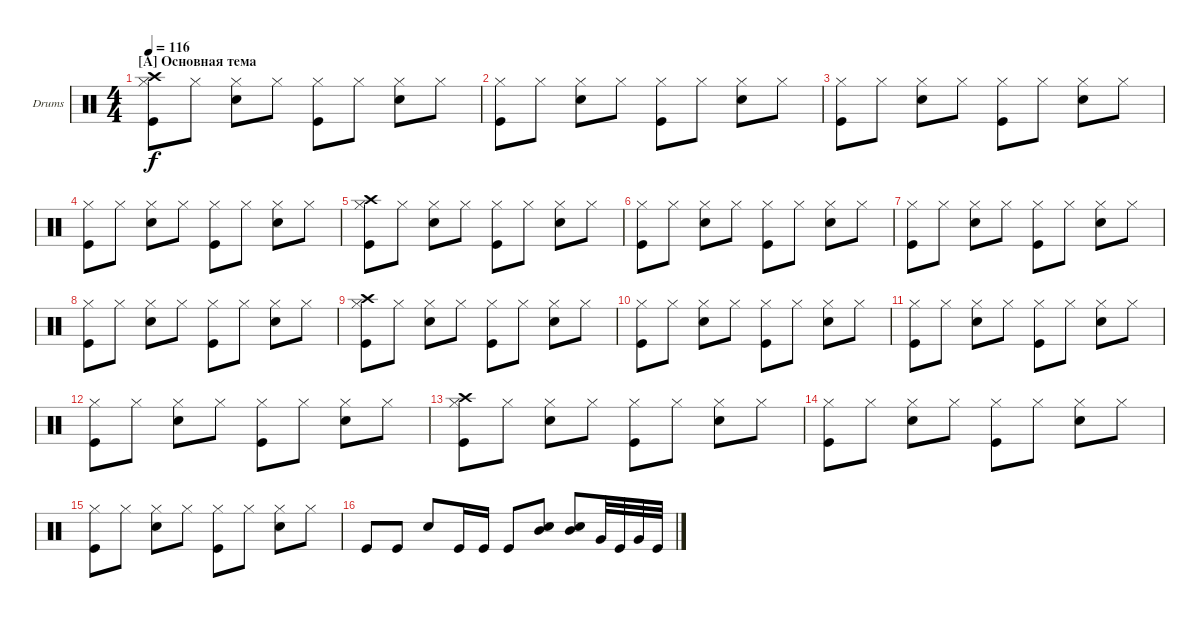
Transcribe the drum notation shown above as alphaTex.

\defaultSystemsLayout 4
\bracketExtendMode groupsimilarinstruments
\firstSystemTrackNameOrientation horizontal
\otherSystemsTrackNameOrientation horizontal
\track ("Drumkit" "Drums") {instrument percussion}
\staff {score}
\articulation defaults
\ts (4 4)
\section ("A" "Основная тема")
\tempo 116
\clef neutral
\ks c
("Hi-Hat (closed)" "Crash high (hit)" "Kick (hit)").8{dy f} "Hi-Hat (closed)".8 ("Hi-Hat (closed)" "Snare (hit) 2").8 "Hi-Hat (closed)".8 ("Hi-Hat (closed)" "Kick (hit)").8 "Hi-Hat (closed)".8 ("Hi-Hat (closed)" "Snare (hit) 2").8 "Hi-Hat (closed)".8 |
("Hi-Hat (closed)" "Kick (hit)").8 "Hi-Hat (closed)".8 ("Hi-Hat (closed)" "Snare (hit) 2").8 "Hi-Hat (closed)".8 ("Hi-Hat (closed)" "Kick (hit)").8 "Hi-Hat (closed)".8 ("Hi-Hat (closed)" "Snare (hit) 2").8 "Hi-Hat (closed)".8 |
("Hi-Hat (closed)" "Kick (hit)").8 "Hi-Hat (closed)".8 ("Hi-Hat (closed)" "Snare (hit) 2").8 "Hi-Hat (closed)".8 ("Hi-Hat (closed)" "Kick (hit)").8 "Hi-Hat (closed)".8 ("Hi-Hat (closed)" "Snare (hit) 2").8 "Hi-Hat (closed)".8 |
("Hi-Hat (closed)" "Kick (hit)").8 "Hi-Hat (closed)".8 ("Hi-Hat (closed)" "Snare (hit) 2").8 "Hi-Hat (closed)".8 ("Hi-Hat (closed)" "Kick (hit)").8 "Hi-Hat (closed)".8 ("Hi-Hat (closed)" "Snare (hit) 2").8 "Hi-Hat (closed)".8 |
("Hi-Hat (closed)" "Crash high (hit)" "Kick (hit)").8 "Hi-Hat (closed)".8 ("Hi-Hat (closed)" "Snare (hit) 2").8 "Hi-Hat (closed)".8 ("Hi-Hat (closed)" "Kick (hit)").8 "Hi-Hat (closed)".8 ("Hi-Hat (closed)" "Snare (hit) 2").8 "Hi-Hat (closed)".8 |
("Hi-Hat (closed)" "Kick (hit)").8 "Hi-Hat (closed)".8 ("Hi-Hat (closed)" "Snare (hit) 2").8 "Hi-Hat (closed)".8 ("Hi-Hat (closed)" "Kick (hit)").8 "Hi-Hat (closed)".8 ("Hi-Hat (closed)" "Snare (hit) 2").8 "Hi-Hat (closed)".8 |
("Hi-Hat (closed)" "Kick (hit)").8 "Hi-Hat (closed)".8 ("Hi-Hat (closed)" "Snare (hit) 2").8 "Hi-Hat (closed)".8 ("Hi-Hat (closed)" "Kick (hit)").8 "Hi-Hat (closed)".8 ("Hi-Hat (closed)" "Snare (hit) 2").8 "Hi-Hat (closed)".8 |
("Hi-Hat (closed)" "Kick (hit)").8 "Hi-Hat (closed)".8 ("Hi-Hat (closed)" "Snare (hit) 2").8 "Hi-Hat (closed)".8 ("Hi-Hat (closed)" "Kick (hit)").8 "Hi-Hat (closed)".8 ("Hi-Hat (closed)" "Snare (hit) 2").8 "Hi-Hat (closed)".8 |
("Hi-Hat (closed)" "Crash high (hit)" "Kick (hit)").8 "Hi-Hat (closed)".8 ("Hi-Hat (closed)" "Snare (hit) 2").8 "Hi-Hat (closed)".8 ("Hi-Hat (closed)" "Kick (hit)").8 "Hi-Hat (closed)".8 ("Hi-Hat (closed)" "Snare (hit) 2").8 "Hi-Hat (closed)".8 |
("Hi-Hat (closed)" "Kick (hit)").8 "Hi-Hat (closed)".8 ("Hi-Hat (closed)" "Snare (hit) 2").8 "Hi-Hat (closed)".8 ("Hi-Hat (closed)" "Kick (hit)").8 "Hi-Hat (closed)".8 ("Hi-Hat (closed)" "Snare (hit) 2").8 "Hi-Hat (closed)".8 |
("Hi-Hat (closed)" "Kick (hit)").8 "Hi-Hat (closed)".8 ("Hi-Hat (closed)" "Snare (hit) 2").8 "Hi-Hat (closed)".8 ("Hi-Hat (closed)" "Kick (hit)").8 "Hi-Hat (closed)".8 ("Hi-Hat (closed)" "Snare (hit) 2").8 "Hi-Hat (closed)".8 |
("Hi-Hat (closed)" "Kick (hit)").8 "Hi-Hat (closed)".8 ("Hi-Hat (closed)" "Snare (hit) 2").8 "Hi-Hat (closed)".8 ("Hi-Hat (closed)" "Kick (hit)").8 "Hi-Hat (closed)".8 ("Hi-Hat (closed)" "Snare (hit) 2").8 "Hi-Hat (closed)".8 |
("Hi-Hat (closed)" "Crash high (hit)" "Kick (hit)").8 "Hi-Hat (closed)".8 ("Hi-Hat (closed)" "Snare (hit) 2").8 "Hi-Hat (closed)".8 ("Hi-Hat (closed)" "Kick (hit)").8 "Hi-Hat (closed)".8 ("Hi-Hat (closed)" "Snare (hit) 2").8 "Hi-Hat (closed)".8 |
("Hi-Hat (closed)" "Kick (hit)").8 "Hi-Hat (closed)".8 ("Hi-Hat (closed)" "Snare (hit) 2").8 "Hi-Hat (closed)".8 ("Hi-Hat (closed)" "Kick (hit)").8 "Hi-Hat (closed)".8 ("Hi-Hat (closed)" "Snare (hit) 2").8 "Hi-Hat (closed)".8 |
("Hi-Hat (closed)" "Kick (hit)").8 "Hi-Hat (closed)".8 ("Hi-Hat (closed)" "Snare (hit) 2").8 "Hi-Hat (closed)".8 ("Hi-Hat (closed)" "Kick (hit)").8 "Hi-Hat (closed)".8 ("Hi-Hat (closed)" "Snare (hit) 2").8 "Hi-Hat (closed)".8 |
"Kick (hit)".8 "Kick (hit)".8 "Snare (hit) 2".8 "Kick (hit)".16 "Kick (hit)".16 "Kick (hit)".8 ("Snare (hit) 2" "Mid Tom (hit)").8 ("Snare (hit) 2" "Mid Tom (hit)").8 "Very Low Tom (hit)".32 "Kick (hit)".32 "Very Low Tom (hit)".32 "Kick (hit)".32
